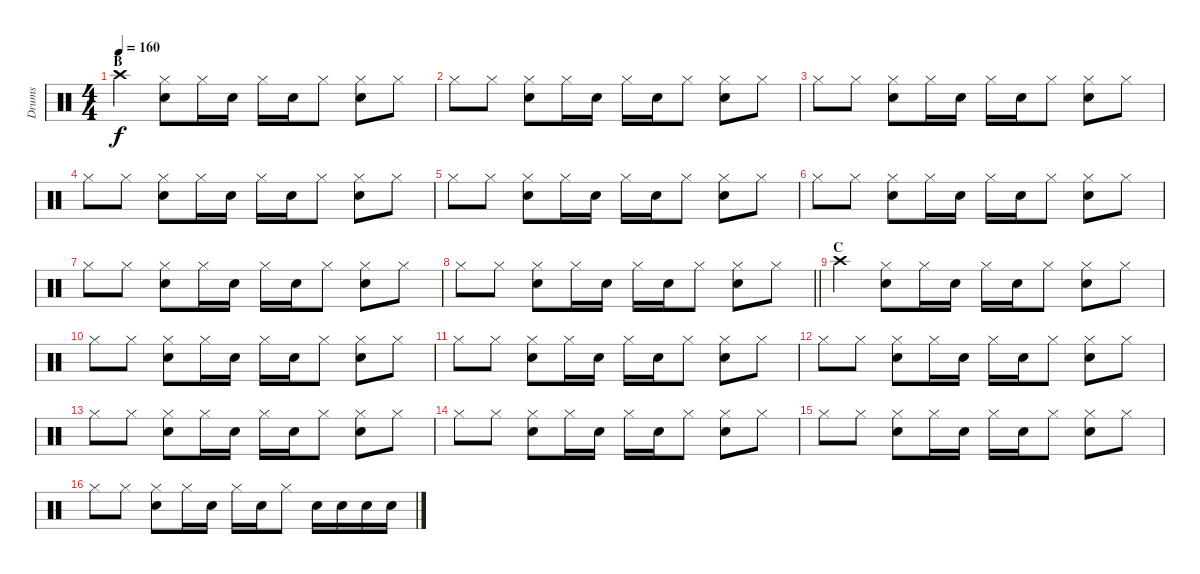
\track ("Drums" "Drums") {instrument percussion}
\staff {score}
\articulation defaults
\ts (4 4)
\section ("" "B")
\tempo 160
\clef neutral
\ks c "Crash high (hit)".4{dy f}
("Hi-Hat (closed)" "Snare (hit) 2").8 "Hi-Hat (closed)".16 "Snare (hit) 2".16 "Hi-Hat (closed)".16 "Snare (hit) 2".16 "Hi-Hat (closed)".8 ("Hi-Hat (closed)" "Snare (hit) 2").8 "Hi-Hat (closed)".8 |
"Hi-Hat (closed)".8 "Hi-Hat (closed)".8 ("Hi-Hat (closed)" "Snare (hit) 2").8 "Hi-Hat (closed)".16 "Snare (hit) 2".16 "Hi-Hat (closed)".16 "Snare (hit) 2".16 "Hi-Hat (closed)".8 ("Hi-Hat (closed)" "Snare (hit) 2").8 "Hi-Hat (closed)".8 |
"Hi-Hat (closed)".8 "Hi-Hat (closed)".8 ("Hi-Hat (closed)" "Snare (hit) 2").8 "Hi-Hat (closed)".16 "Snare (hit) 2".16 "Hi-Hat (closed)".16 "Snare (hit) 2".16 "Hi-Hat (closed)".8 ("Hi-Hat (closed)" "Snare (hit) 2").8 "Hi-Hat (closed)".8 |
"Hi-Hat (closed)".8 "Hi-Hat (closed)".8 ("Hi-Hat (closed)" "Snare (hit) 2").8 "Hi-Hat (closed)".16 "Snare (hit) 2".16 "Hi-Hat (closed)".16 "Snare (hit) 2".16 "Hi-Hat (closed)".8 ("Hi-Hat (closed)" "Snare (hit) 2").8 "Hi-Hat (closed)".8 |
"Hi-Hat (closed)".8 "Hi-Hat (closed)".8 ("Hi-Hat (closed)" "Snare (hit) 2").8 "Hi-Hat (closed)".16 "Snare (hit) 2".16 "Hi-Hat (closed)".16 "Snare (hit) 2".16 "Hi-Hat (closed)".8 ("Hi-Hat (closed)" "Snare (hit) 2").8 "Hi-Hat (closed)".8 |
"Hi-Hat (closed)".8 "Hi-Hat (closed)".8 ("Hi-Hat (closed)" "Snare (hit) 2").8 "Hi-Hat (closed)".16 "Snare (hit) 2".16 "Hi-Hat (closed)".16 "Snare (hit) 2".16 "Hi-Hat (closed)".8 ("Hi-Hat (closed)" "Snare (hit) 2").8 "Hi-Hat (closed)".8 |
"Hi-Hat (closed)".8 "Hi-Hat (closed)".8 ("Hi-Hat (closed)" "Snare (hit) 2").8 "Hi-Hat (closed)".16 "Snare (hit) 2".16 "Hi-Hat (closed)".16 "Snare (hit) 2".16 "Hi-Hat (closed)".8 ("Hi-Hat (closed)" "Snare (hit) 2").8 "Hi-Hat (closed)".8 |
\barLineRight lightlight "Hi-Hat (closed)".8 "Hi-Hat (closed)".8
("Hi-Hat (closed)" "Snare (hit) 2").8 "Hi-Hat (closed)".16 "Snare (hit) 2".16 "Hi-Hat (closed)".16 "Snare (hit) 2".16 "Hi-Hat (closed)".8 ("Hi-Hat (closed)" "Snare (hit) 2").8 "Hi-Hat (closed)".8 |
\section ("" "C")
"Crash high (hit)".4 ("Hi-Hat (closed)" "Snare (hit) 2").8 "Hi-Hat (closed)".16 "Snare (hit) 2".16 "Hi-Hat (closed)".16 "Snare (hit) 2".16 "Hi-Hat (closed)".8 ("Hi-Hat (closed)" "Snare (hit) 2").8 "Hi-Hat (closed)".8 |
"Hi-Hat (closed)".8 "Hi-Hat (closed)".8 ("Hi-Hat (closed)" "Snare (hit) 2").8 "Hi-Hat (closed)".16 "Snare (hit) 2".16 "Hi-Hat (closed)".16 "Snare (hit) 2".16 "Hi-Hat (closed)".8 ("Hi-Hat (closed)" "Snare (hit) 2").8 "Hi-Hat (closed)".8 |
"Hi-Hat (closed)".8 "Hi-Hat (closed)".8 ("Hi-Hat (closed)" "Snare (hit) 2").8 "Hi-Hat (closed)".16 "Snare (hit) 2".16 "Hi-Hat (closed)".16 "Snare (hit) 2".16 "Hi-Hat (closed)".8 ("Hi-Hat (closed)" "Snare (hit) 2").8 "Hi-Hat (closed)".8 |
"Hi-Hat (closed)".8 "Hi-Hat (closed)".8 ("Hi-Hat (closed)" "Snare (hit) 2").8 "Hi-Hat (closed)".16 "Snare (hit) 2".16 "Hi-Hat (closed)".16 "Snare (hit) 2".16 "Hi-Hat (closed)".8 ("Hi-Hat (closed)" "Snare (hit) 2").8 "Hi-Hat (closed)".8 |
"Hi-Hat (closed)".8 "Hi-Hat (closed)".8 ("Hi-Hat (closed)" "Snare (hit) 2").8 "Hi-Hat (closed)".16 "Snare (hit) 2".16 "Hi-Hat (closed)".16 "Snare (hit) 2".16 "Hi-Hat (closed)".8 ("Hi-Hat (closed)" "Snare (hit) 2").8 "Hi-Hat (closed)".8 |
"Hi-Hat (closed)".8 "Hi-Hat (closed)".8 ("Hi-Hat (closed)" "Snare (hit) 2").8 "Hi-Hat (closed)".16 "Snare (hit) 2".16 "Hi-Hat (closed)".16 "Snare (hit) 2".16 "Hi-Hat (closed)".8 ("Hi-Hat (closed)" "Snare (hit) 2").8 "Hi-Hat (closed)".8 |
"Hi-Hat (closed)".8 "Hi-Hat (closed)".8 ("Hi-Hat (closed)" "Snare (hit) 2").8 "Hi-Hat (closed)".16 "Snare (hit) 2".16 "Hi-Hat (closed)".16 "Snare (hit) 2".16 "Hi-Hat (closed)".8 ("Hi-Hat (closed)" "Snare (hit) 2").8 "Hi-Hat (closed)".8 |
"Hi-Hat (closed)".8 "Hi-Hat (closed)".8 ("Hi-Hat (closed)" "Snare (hit) 2").8 "Hi-Hat (closed)".16 "Snare (hit) 2".16 "Hi-Hat (closed)".16 "Snare (hit) 2".16 "Hi-Hat (closed)".8 "Snare (hit) 2".16 "Snare (hit) 2".16 "Snare (hit) 2".16 "Snare (hit) 2".16
